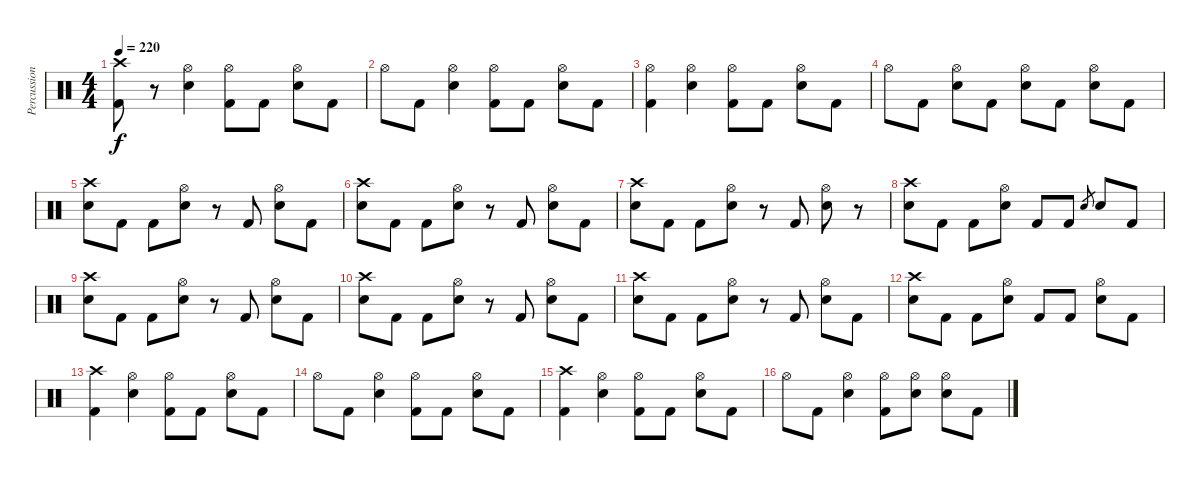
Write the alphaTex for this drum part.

\track ("Percussion" "Percussion") {instrument percussion}
\staff {score}
\articulation defaults
\ts (4 4)
\tempo 220
\clef neutral
\ks c
("Crash high (hit)" "Kick (hit) 2").8{dy f} r.8 ("Hi-Hat (open)" "Electric Snare (hit)").4 ("Hi-Hat (open)" "Kick (hit) 2").8 "Kick (hit) 2".8 ("Hi-Hat (open)" "Electric Snare (hit)").8 "Kick (hit) 2".8 |
"Hi-Hat (open)".8 "Kick (hit) 2".8 ("Hi-Hat (open)" "Electric Snare (hit)").4 ("Hi-Hat (open)" "Kick (hit) 2").8 "Kick (hit) 2".8 ("Hi-Hat (open)" "Electric Snare (hit)").8 "Kick (hit) 2".8 |
("Hi-Hat (open)" "Kick (hit) 2").4 ("Hi-Hat (open)" "Electric Snare (hit)").4 ("Hi-Hat (open)" "Kick (hit) 2").8 "Kick (hit) 2".8 ("Hi-Hat (open)" "Electric Snare (hit)").8 "Kick (hit) 2".8 |
"Hi-Hat (open)".8 "Kick (hit) 2".8 ("Hi-Hat (open)" "Electric Snare (hit)").8 "Kick (hit) 2".8 ("Hi-Hat (open)" "Electric Snare (hit)").8 "Kick (hit) 2".8 ("Hi-Hat (open)" "Electric Snare (hit)").8 "Kick (hit) 2".8 |
("Crash high (hit)" "Electric Snare (hit)").8 "Kick (hit) 2".8 "Kick (hit) 2".8 ("Hi-Hat (open)" "Electric Snare (hit)").8 r.8 "Kick (hit) 2".8 ("Hi-Hat (open)" "Electric Snare (hit)").8 "Kick (hit) 2".8 |
("Crash high (hit)" "Electric Snare (hit)").8 "Kick (hit) 2".8 "Kick (hit) 2".8 ("Hi-Hat (open)" "Electric Snare (hit)").8 r.8 "Kick (hit) 2".8 ("Hi-Hat (open)" "Electric Snare (hit)").8 "Kick (hit) 2".8 |
("Crash high (hit)" "Electric Snare (hit)").8 "Kick (hit) 2".8 "Kick (hit) 2".8 ("Hi-Hat (open)" "Electric Snare (hit)").8 r.8 "Kick (hit) 2".8 ("Hi-Hat (open)" "Electric Snare (hit)").8 r.8 |
("Crash high (hit)" "Electric Snare (hit)").8 "Kick (hit) 2".8 "Kick (hit) 2".8 ("Hi-Hat (open)" "Electric Snare (hit)").8 "Kick (hit) 2".8 "Kick (hit) 2".8 "Electric Snare (hit)".8{gr} "Electric Snare (hit)".8 "Kick (hit) 2".8 |
("Crash high (hit)" "Electric Snare (hit)").8 "Kick (hit) 2".8 "Kick (hit) 2".8 ("Hi-Hat (open)" "Electric Snare (hit)").8 r.8 "Kick (hit) 2".8 ("Hi-Hat (open)" "Electric Snare (hit)").8 "Kick (hit) 2".8 |
("Crash high (hit)" "Electric Snare (hit)").8 "Kick (hit) 2".8 "Kick (hit) 2".8 ("Hi-Hat (open)" "Electric Snare (hit)").8 r.8 "Kick (hit) 2".8 ("Hi-Hat (open)" "Electric Snare (hit)").8 "Kick (hit) 2".8 |
("Crash high (hit)" "Electric Snare (hit)").8 "Kick (hit) 2".8 "Kick (hit) 2".8 ("Hi-Hat (open)" "Electric Snare (hit)").8 r.8 "Kick (hit) 2".8 ("Hi-Hat (open)" "Electric Snare (hit)").8 "Kick (hit) 2".8 |
("Crash high (hit)" "Electric Snare (hit)").8 "Kick (hit) 2".8 "Kick (hit) 2".8 ("Hi-Hat (open)" "Electric Snare (hit)").8 "Kick (hit) 2".8 "Kick (hit) 2".8 ("Hi-Hat (open)" "Electric Snare (hit)").8 "Kick (hit) 2".8 |
("Crash high (hit)" "Kick (hit) 2").4 ("Hi-Hat (open)" "Electric Snare (hit)").4 ("Hi-Hat (open)" "Kick (hit) 2").8 "Kick (hit) 2".8 ("Hi-Hat (open)" "Electric Snare (hit)").8 "Kick (hit) 2".8 |
"Hi-Hat (open)".8 "Kick (hit) 2".8 ("Hi-Hat (open)" "Electric Snare (hit)").4 ("Hi-Hat (open)" "Kick (hit) 2").8 "Kick (hit) 2".8 ("Hi-Hat (open)" "Electric Snare (hit)").8 "Kick (hit) 2".8 |
("Crash high (hit)" "Kick (hit) 2").4 ("Hi-Hat (open)" "Electric Snare (hit)").4 ("Hi-Hat (open)" "Kick (hit) 2").8 "Kick (hit) 2".8 ("Hi-Hat (open)" "Electric Snare (hit)").8 "Kick (hit) 2".8 |
"Hi-Hat (open)".8 "Kick (hit) 2".8 ("Hi-Hat (open)" "Electric Snare (hit)").4 ("Hi-Hat (open)" "Kick (hit) 2").8 ("Hi-Hat (open)" "Electric Snare (hit)").8 ("Hi-Hat (open)" "Electric Snare (hit)").8 "Kick (hit) 2".8
